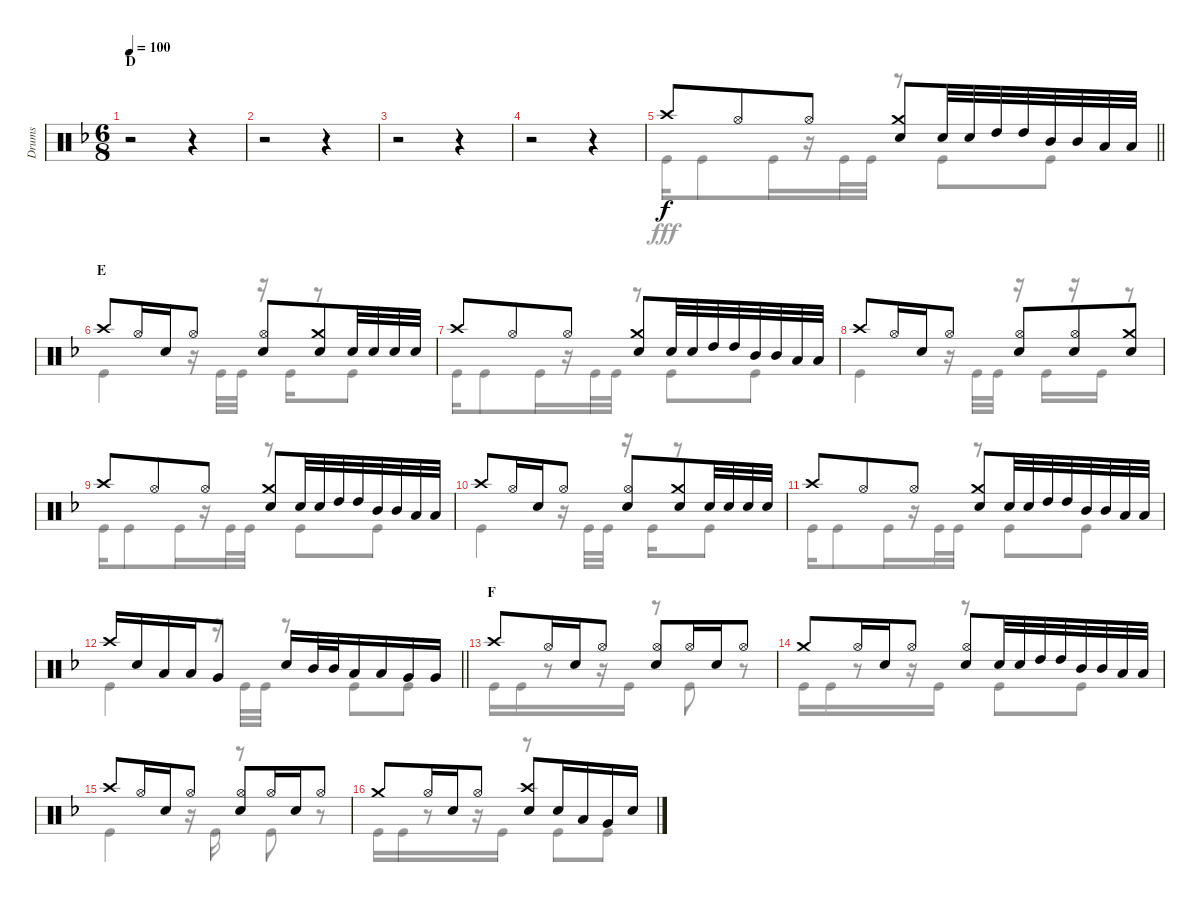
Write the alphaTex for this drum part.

\track ("Drums" "Drums") {instrument percussion}
\staff {score}
\articulation defaults
\voice
\ts (6 8)
\section ("" "D")
\tempo 100
\clef neutral
\ks f
r.2{dy f} r.4 |
r.2 r.4 |
r.2 r.4 |
r.2 r.4 |
\barLineRight lightlight "Crash high (hit)".8 "Hi-Hat (open)".8 "Hi-Hat (open)".8
("Crash medium (hit)" "Snare (hit) 2").8 "Snare (hit) 2".32 "Snare (hit) 2".32 "High Tom (hit)".32 "High Tom (hit)".32 "Mid Tom (hit)".32 "Mid Tom (hit)".32 "Low Tom (hit)".32 "Low Tom (hit)".32 |
\section ("" "E")
"Crash high (hit)".8 "Hi-Hat (open)".16 "Snare (hit) 2".16 "Hi-Hat (open)".8 ("Hi-Hat (open)" "Snare (hit) 2").8 ("Crash medium (hit)" "Snare (hit) 2").8 "Snare (hit) 2".32 "Snare (hit) 2".32 "Snare (hit) 2".32 "Snare (hit) 2".32 |
"Crash high (hit)".8 "Hi-Hat (open)".8 "Hi-Hat (open)".8 ("Crash medium (hit)" "Snare (hit) 2").8 "Snare (hit) 2".32 "Snare (hit) 2".32 "High Tom (hit)".32 "High Tom (hit)".32 "Mid Tom (hit)".32 "Mid Tom (hit)".32 "Low Tom (hit)".32 "Low Tom (hit)".32 |
"Crash high (hit)".8 "Hi-Hat (open)".16 "Snare (hit) 2".16 "Hi-Hat (open)".8 ("Hi-Hat (open)" "Snare (hit) 2").8 ("Hi-Hat (open)" "Snare (hit) 2").8 ("Crash medium (hit)" "Snare (hit) 2").8 |
"Crash high (hit)".8 "Hi-Hat (open)".8 "Hi-Hat (open)".8 ("Crash medium (hit)" "Snare (hit) 2").8 "Snare (hit) 2".32 "Snare (hit) 2".32 "High Tom (hit)".32 "High Tom (hit)".32 "Mid Tom (hit)".32 "Mid Tom (hit)".32 "Low Tom (hit)".32 "Low Tom (hit)".32 |
"Crash high (hit)".8 "Hi-Hat (open)".16 "Snare (hit) 2".16 "Hi-Hat (open)".8 ("Hi-Hat (open)" "Snare (hit) 2").8 ("Crash medium (hit)" "Snare (hit) 2").8 "Snare (hit) 2".32 "Snare (hit) 2".32 "Snare (hit) 2".32 "Snare (hit) 2".32 |
"Crash high (hit)".8 "Hi-Hat (open)".8 "Hi-Hat (open)".8 ("Crash medium (hit)" "Snare (hit) 2").8 "Snare (hit) 2".32 "Snare (hit) 2".32 "High Tom (hit)".32 "High Tom (hit)".32 "Mid Tom (hit)".32 "Mid Tom (hit)".32 "Low Tom (hit)".32 "Low Tom (hit)".32 |
\barLineRight lightlight "Crash high (hit)".16 "Snare (hit) 2".16 "Low Tom (hit)".16 "Low Tom (hit)".16 "Very Low Tom (hit)".8 "Snare (hit) 2".16 "Mid Tom (hit)".32 "Mid Tom (hit)".32 "Low Tom (hit)".16 "Low Tom (hit)".16 "Very Low Tom (hit)".16 "Very Low Tom (hit)".16
|
\section ("" "F")
"Crash high (hit)".8 "Hi-Hat (open)".16 "Snare (hit) 2".16 "Hi-Hat (open)".8 ("Hi-Hat (open)" "Snare (hit) 2").8 "Hi-Hat (open)".16 "Snare (hit) 2".16 "Hi-Hat (open)".8 |
"Crash medium (hit)".8 "Hi-Hat (open)".16 "Snare (hit) 2".16 "Hi-Hat (open)".8 ("Hi-Hat (open)" "Snare (hit) 2").8 "Snare (hit) 2".32 "Snare (hit) 2".32 "High Tom (hit)".32 "High Tom (hit)".32 "Mid Tom (hit)".32 "Mid Tom (hit)".32 "Low Tom (hit)".32 "Low Tom (hit)".32 |
"Crash high (hit)".8 "Hi-Hat (open)".16 "Snare (hit) 2".16 "Hi-Hat (open)".8 ("Hi-Hat (open)" "Snare (hit) 2").8 "Hi-Hat (open)".16 "Snare (hit) 2".16 "Hi-Hat (open)".8 |
"Crash medium (hit)".8 "Hi-Hat (open)".16 "Snare (hit) 2".16 "Hi-Hat (open)".8 ("Crash high (hit)" "Snare (hit) 2").8 "Snare (hit) 2".16 "Low Tom (hit)".16 "Very Low Tom (hit)".16 "Snare (hit) 2".16
\voice
\clef neutral
\ottava regular
\simile none
\ks f
r.2{dy fff} r.4 |
r.2 r.4 |
r.2 r.4 |
r.2 r.4 |
\barLineRight lightlight "Kick (hit)".16 "Kick (hit)".8 "Kick (hit)".16
r.16 "Kick (hit)".32 "Kick (hit)".32 r.8 "Kick (hit)".8 "Kick (hit)".8 |
"Kick (hit)".4 r.16 "Kick (hit)".32 "Kick (hit)".32 r.16 "Kick (hit)".16 r.8 "Kick (hit)".8 |
"Kick (hit)".16 "Kick (hit)".8 "Kick (hit)".16 r.16 "Kick (hit)".32 "Kick (hit)".32 r.8 "Kick (hit)".8 "Kick (hit)".8 |
"Kick (hit)".4 r.16 "Kick (hit)".32 "Kick (hit)".32 r.16 "Kick (hit)".16 r.16 "Kick (hit)".16 r.8 |
"Kick (hit)".16 "Kick (hit)".8 "Kick (hit)".16 r.16 "Kick (hit)".32 "Kick (hit)".32 r.8 "Kick (hit)".8 "Kick (hit)".8 |
"Kick (hit)".4 r.16 "Kick (hit)".32 "Kick (hit)".32 r.16 "Kick (hit)".16 r.8 "Kick (hit)".8 |
"Kick (hit)".16 "Kick (hit)".8 "Kick (hit)".16 r.16 "Kick (hit)".32 "Kick (hit)".32 r.8 "Kick (hit)".8 "Kick (hit)".8 |
\barLineRight lightlight "Kick (hit)".4
r.16 "Kick (hit)".32 "Kick (hit)".32 r.8 "Kick (hit)".8 "Kick (hit)".8 |
"Kick (hit)".16 "Kick (hit)".16 r.8 r.16 "Kick (hit)".16 r.8 "Kick (hit)".8 r.8 |
"Kick (hit)".16 "Kick (hit)".16 r.8 r.16 "Kick (hit)".16 r.8 "Kick (hit)".8 "Kick (hit)".8 |
"Kick (hit)".4 r.16 "Kick (hit)".16 r.8 "Kick (hit)".8 r.8 |
"Kick (hit)".16 "Kick (hit)".16 r.8 r.16 "Kick (hit)".16 r.8 "Kick (hit)".8 "Kick (hit)".8
